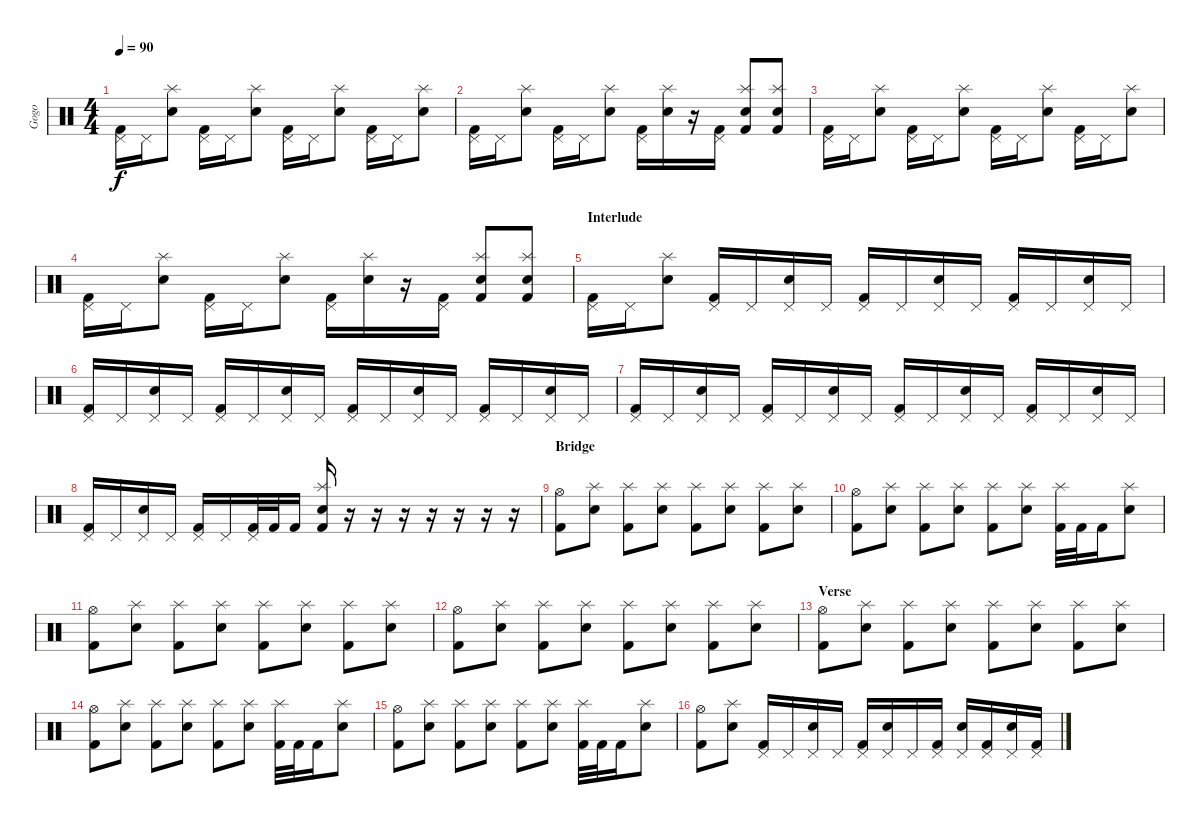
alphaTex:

\track ("Gogo" "Gogo") {instrument percussion}
\staff {score}
\articulation defaults
\ts (4 4)
\tempo 90
\clef neutral
\ks c
("Pedal Hi-Hat (hit)" "Kick (hit) 2").16{dy f} "Pedal Hi-Hat (hit)".16 ("Splash (hit)" "Electric Snare (hit)").8 ("Pedal Hi-Hat (hit)" "Kick (hit) 2").16 "Pedal Hi-Hat (hit)".16 ("Splash (hit)" "Electric Snare (hit)").8 ("Pedal Hi-Hat (hit)" "Kick (hit) 2").16 "Pedal Hi-Hat (hit)".16 ("Splash (hit)" "Electric Snare (hit)").8 ("Pedal Hi-Hat (hit)" "Kick (hit) 2").16 "Pedal Hi-Hat (hit)".16 ("Splash (hit)" "Electric Snare (hit)").8 |
("Pedal Hi-Hat (hit)" "Kick (hit) 2").16 "Pedal Hi-Hat (hit)".16 ("Splash (hit)" "Electric Snare (hit)").8 ("Pedal Hi-Hat (hit)" "Kick (hit) 2").16 "Pedal Hi-Hat (hit)".16 ("Splash (hit)" "Electric Snare (hit)").8 ("Pedal Hi-Hat (hit)" "Kick (hit) 2").16 ("Splash (hit)" "Electric Snare (hit)").16 r.16 ("Pedal Hi-Hat (hit)" "Kick (hit) 2").16 ("Splash (hit)" "Electric Snare (hit)" "Kick (hit) 2").8 ("Splash (hit)" "Electric Snare (hit)" "Kick (hit) 2").8 |
("Pedal Hi-Hat (hit)" "Kick (hit) 2").16 "Pedal Hi-Hat (hit)".16 ("Splash (hit)" "Electric Snare (hit)").8 ("Pedal Hi-Hat (hit)" "Kick (hit) 2").16 "Pedal Hi-Hat (hit)".16 ("Splash (hit)" "Electric Snare (hit)").8 ("Pedal Hi-Hat (hit)" "Kick (hit) 2").16 "Pedal Hi-Hat (hit)".16 ("Splash (hit)" "Electric Snare (hit)").8 ("Pedal Hi-Hat (hit)" "Kick (hit) 2").16 "Pedal Hi-Hat (hit)".16 ("Splash (hit)" "Electric Snare (hit)").8 |
("Pedal Hi-Hat (hit)" "Kick (hit) 2").16 "Pedal Hi-Hat (hit)".16 ("Splash (hit)" "Electric Snare (hit)").8 ("Pedal Hi-Hat (hit)" "Kick (hit) 2").16 "Pedal Hi-Hat (hit)".16 ("Splash (hit)" "Electric Snare (hit)").8 ("Pedal Hi-Hat (hit)" "Kick (hit) 2").16 ("Splash (hit)" "Electric Snare (hit)").16 r.16 ("Pedal Hi-Hat (hit)" "Kick (hit) 2").16 ("Splash (hit)" "Electric Snare (hit)" "Kick (hit) 2").8 ("Splash (hit)" "Electric Snare (hit)" "Kick (hit) 2").8 |
\section ("" "Interlude")
("Pedal Hi-Hat (hit)" "Kick (hit) 2").16 "Pedal Hi-Hat (hit)".16 ("Splash (hit)" "Electric Snare (hit)").8 ("Pedal Hi-Hat (hit)" "Kick (hit) 2").16 "Pedal Hi-Hat (hit)".16 ("Pedal Hi-Hat (hit)" "Electric Snare (hit)").16 "Pedal Hi-Hat (hit)".16 ("Pedal Hi-Hat (hit)" "Kick (hit) 2").16 "Pedal Hi-Hat (hit)".16 ("Pedal Hi-Hat (hit)" "Electric Snare (hit)").16 "Pedal Hi-Hat (hit)".16 ("Pedal Hi-Hat (hit)" "Kick (hit) 2").16 "Pedal Hi-Hat (hit)".16 ("Pedal Hi-Hat (hit)" "Electric Snare (hit)").16 "Pedal Hi-Hat (hit)".16 |
("Pedal Hi-Hat (hit)" "Kick (hit) 2").16 "Pedal Hi-Hat (hit)".16 ("Pedal Hi-Hat (hit)" "Electric Snare (hit)").16 "Pedal Hi-Hat (hit)".16 ("Pedal Hi-Hat (hit)" "Kick (hit) 2").16 "Pedal Hi-Hat (hit)".16 ("Pedal Hi-Hat (hit)" "Electric Snare (hit)").16 "Pedal Hi-Hat (hit)".16 ("Pedal Hi-Hat (hit)" "Kick (hit) 2").16 "Pedal Hi-Hat (hit)".16 ("Pedal Hi-Hat (hit)" "Electric Snare (hit)").16 "Pedal Hi-Hat (hit)".16 ("Pedal Hi-Hat (hit)" "Kick (hit) 2").16 "Pedal Hi-Hat (hit)".16 ("Pedal Hi-Hat (hit)" "Electric Snare (hit)").16 "Pedal Hi-Hat (hit)".16 |
("Pedal Hi-Hat (hit)" "Kick (hit) 2").16 "Pedal Hi-Hat (hit)".16 ("Pedal Hi-Hat (hit)" "Electric Snare (hit)").16 "Pedal Hi-Hat (hit)".16 ("Pedal Hi-Hat (hit)" "Kick (hit) 2").16 "Pedal Hi-Hat (hit)".16 ("Pedal Hi-Hat (hit)" "Electric Snare (hit)").16 "Pedal Hi-Hat (hit)".16 ("Pedal Hi-Hat (hit)" "Kick (hit) 2").16 "Pedal Hi-Hat (hit)".16 ("Pedal Hi-Hat (hit)" "Electric Snare (hit)").16 "Pedal Hi-Hat (hit)".16 ("Pedal Hi-Hat (hit)" "Kick (hit) 2").16 "Pedal Hi-Hat (hit)".16 ("Pedal Hi-Hat (hit)" "Electric Snare (hit)").16 "Pedal Hi-Hat (hit)".16 |
("Pedal Hi-Hat (hit)" "Kick (hit) 2").16 "Pedal Hi-Hat (hit)".16 ("Pedal Hi-Hat (hit)" "Electric Snare (hit)").16 "Pedal Hi-Hat (hit)".16 ("Pedal Hi-Hat (hit)" "Kick (hit) 2").16 "Pedal Hi-Hat (hit)".16 ("Pedal Hi-Hat (hit)" "Kick (hit) 2").32 "Kick (hit) 2".32 "Kick (hit) 2".16 ("Splash (hit)" "Electric Snare (hit)" "Kick (hit) 2").16 r.16 r.16 r.16 r.16 r.16 r.16 r.16 |
\section ("" "Bridge")
("Hi-Hat (open)" "Kick (hit) 2").8 ("Splash (hit)" "Electric Snare (hit)").8 ("Splash (hit)" "Kick (hit) 2").8 ("Splash (hit)" "Electric Snare (hit)").8 ("Splash (hit)" "Kick (hit) 2").8 ("Splash (hit)" "Electric Snare (hit)").8 ("Splash (hit)" "Kick (hit) 2").8 ("Splash (hit)" "Electric Snare (hit)").8 |
("Hi-Hat (open)" "Kick (hit) 2").8 ("Splash (hit)" "Electric Snare (hit)").8 ("Splash (hit)" "Kick (hit) 2").8 ("Splash (hit)" "Electric Snare (hit)").8 ("Splash (hit)" "Kick (hit) 2").8 ("Splash (hit)" "Electric Snare (hit)").8 ("Splash (hit)" "Kick (hit) 2").32 "Kick (hit) 2".32 "Kick (hit) 2".16 ("Splash (hit)" "Electric Snare (hit)").8 |
("Hi-Hat (open)" "Kick (hit) 2").8 ("Splash (hit)" "Electric Snare (hit)").8 ("Splash (hit)" "Kick (hit) 2").8 ("Splash (hit)" "Electric Snare (hit)").8 ("Splash (hit)" "Kick (hit) 2").8 ("Splash (hit)" "Electric Snare (hit)").8 ("Splash (hit)" "Kick (hit) 2").8 ("Splash (hit)" "Electric Snare (hit)").8 |
("Hi-Hat (open)" "Kick (hit) 2").8 ("Splash (hit)" "Electric Snare (hit)").8 ("Splash (hit)" "Kick (hit) 2").8 ("Splash (hit)" "Electric Snare (hit)").8 ("Splash (hit)" "Kick (hit) 2").8 ("Splash (hit)" "Electric Snare (hit)").8 ("Splash (hit)" "Kick (hit) 2").8 ("Splash (hit)" "Electric Snare (hit)").8 |
\section ("" "Verse")
("Hi-Hat (open)" "Kick (hit) 2").8 ("Splash (hit)" "Electric Snare (hit)").8 ("Splash (hit)" "Kick (hit) 2").8 ("Splash (hit)" "Electric Snare (hit)").8 ("Splash (hit)" "Kick (hit) 2").8 ("Splash (hit)" "Electric Snare (hit)").8 ("Splash (hit)" "Kick (hit) 2").8 ("Splash (hit)" "Electric Snare (hit)").8 |
("Hi-Hat (open)" "Kick (hit) 2").8 ("Splash (hit)" "Electric Snare (hit)").8 ("Splash (hit)" "Kick (hit) 2").8 ("Splash (hit)" "Electric Snare (hit)").8 ("Splash (hit)" "Kick (hit) 2").8 ("Splash (hit)" "Electric Snare (hit)").8 ("Splash (hit)" "Kick (hit) 2").32 "Kick (hit) 2".32 "Kick (hit) 2".16 ("Splash (hit)" "Electric Snare (hit)").8 |
("Hi-Hat (open)" "Kick (hit) 2").8 ("Splash (hit)" "Electric Snare (hit)").8 ("Splash (hit)" "Kick (hit) 2").8 ("Splash (hit)" "Electric Snare (hit)").8 ("Splash (hit)" "Kick (hit) 2").8 ("Splash (hit)" "Electric Snare (hit)").8 ("Splash (hit)" "Kick (hit) 2").32 "Kick (hit) 2".32 "Kick (hit) 2".16 ("Splash (hit)" "Electric Snare (hit)").8 |
("Hi-Hat (open)" "Kick (hit) 2").8 ("Splash (hit)" "Electric Snare (hit)").8 ("Pedal Hi-Hat (hit)" "Kick (hit) 2").16 "Pedal Hi-Hat (hit)".16 ("Pedal Hi-Hat (hit)" "Electric Snare (hit)").16 "Pedal Hi-Hat (hit)".16 ("Pedal Hi-Hat (hit)" "Kick (hit) 2").16 ("Pedal Hi-Hat (hit)" "Electric Snare (hit)").16 "Pedal Hi-Hat (hit)".16 ("Pedal Hi-Hat (hit)" "Kick (hit) 2").16 ("Pedal Hi-Hat (hit)" "Electric Snare (hit)").16 ("Pedal Hi-Hat (hit)" "Kick (hit) 2").16 ("Pedal Hi-Hat (hit)" "Electric Snare (hit)").16 ("Pedal Hi-Hat (hit)" "Kick (hit) 2").16
